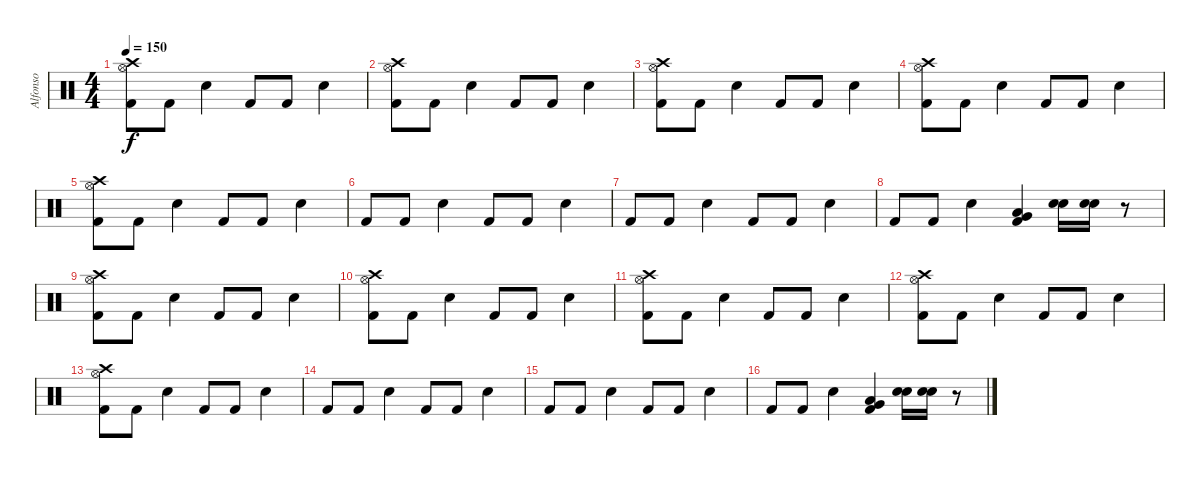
\track ("Alfonso" "Alfonso") {instrument percussion}
\staff {score}
\articulation defaults
\ts (4 4)
\tempo 150
\clef neutral
\ks c
("Crash high (hit)" "Hi-Hat (open)" "Kick (hit) 2").8{dy f} "Kick (hit) 2".8 "Electric Snare (hit)".4 "Kick (hit) 2".8 "Kick (hit) 2".8 "Electric Snare (hit)".4 |
("Crash high (hit)" "Hi-Hat (open)" "Kick (hit) 2").8 "Kick (hit) 2".8 "Electric Snare (hit)".4 "Kick (hit) 2".8 "Kick (hit) 2".8 "Electric Snare (hit)".4 |
("Crash high (hit)" "Hi-Hat (open)" "Kick (hit) 2").8 "Kick (hit) 2".8 "Electric Snare (hit)".4 "Kick (hit) 2".8 "Kick (hit) 2".8 "Electric Snare (hit)".4 |
("Crash high (hit)" "Hi-Hat (open)" "Kick (hit) 2").8 "Kick (hit) 2".8 "Electric Snare (hit)".4 "Kick (hit) 2".8 "Kick (hit) 2".8 "Electric Snare (hit)".4 |
("Crash high (hit)" "Hi-Hat (open)" "Kick (hit) 2").8 "Kick (hit) 2".8 "Electric Snare (hit)".4 "Kick (hit) 2".8 "Kick (hit) 2".8 "Electric Snare (hit)".4 |
"Kick (hit) 2".8 "Kick (hit) 2".8 "Electric Snare (hit)".4 "Kick (hit) 2".8 "Kick (hit) 2".8 "Electric Snare (hit)".4 |
"Kick (hit) 2".8 "Kick (hit) 2".8 "Electric Snare (hit)".4 "Kick (hit) 2".8 "Kick (hit) 2".8 "Electric Snare (hit)".4 |
"Kick (hit) 2".8 "Kick (hit) 2".8 "Electric Snare (hit)".4 ("Kick (hit) 2" "Very Low Tom (hit)" "Low Floor Tom (hit)").4 ("Snare (hit) 2" "Electric Snare (hit)").16 ("Snare (hit) 2" "Electric Snare (hit)").16 r.8 |
("Crash high (hit)" "Hi-Hat (open)" "Kick (hit) 2").8 "Kick (hit) 2".8 "Electric Snare (hit)".4 "Kick (hit) 2".8 "Kick (hit) 2".8 "Electric Snare (hit)".4 |
("Crash high (hit)" "Hi-Hat (open)" "Kick (hit) 2").8 "Kick (hit) 2".8 "Electric Snare (hit)".4 "Kick (hit) 2".8 "Kick (hit) 2".8 "Electric Snare (hit)".4 |
("Crash high (hit)" "Hi-Hat (open)" "Kick (hit) 2").8 "Kick (hit) 2".8 "Electric Snare (hit)".4 "Kick (hit) 2".8 "Kick (hit) 2".8 "Electric Snare (hit)".4 |
("Crash high (hit)" "Hi-Hat (open)" "Kick (hit) 2").8 "Kick (hit) 2".8 "Electric Snare (hit)".4 "Kick (hit) 2".8 "Kick (hit) 2".8 "Electric Snare (hit)".4 |
("Crash high (hit)" "Hi-Hat (open)" "Kick (hit) 2").8 "Kick (hit) 2".8 "Electric Snare (hit)".4 "Kick (hit) 2".8 "Kick (hit) 2".8 "Electric Snare (hit)".4 |
"Kick (hit) 2".8 "Kick (hit) 2".8 "Electric Snare (hit)".4 "Kick (hit) 2".8 "Kick (hit) 2".8 "Electric Snare (hit)".4 |
"Kick (hit) 2".8 "Kick (hit) 2".8 "Electric Snare (hit)".4 "Kick (hit) 2".8 "Kick (hit) 2".8 "Electric Snare (hit)".4 |
"Kick (hit) 2".8 "Kick (hit) 2".8 "Electric Snare (hit)".4 ("Kick (hit) 2" "Very Low Tom (hit)" "Low Floor Tom (hit)").4 ("Snare (hit) 2" "Electric Snare (hit)").16 ("Snare (hit) 2" "Electric Snare (hit)").16 r.8
